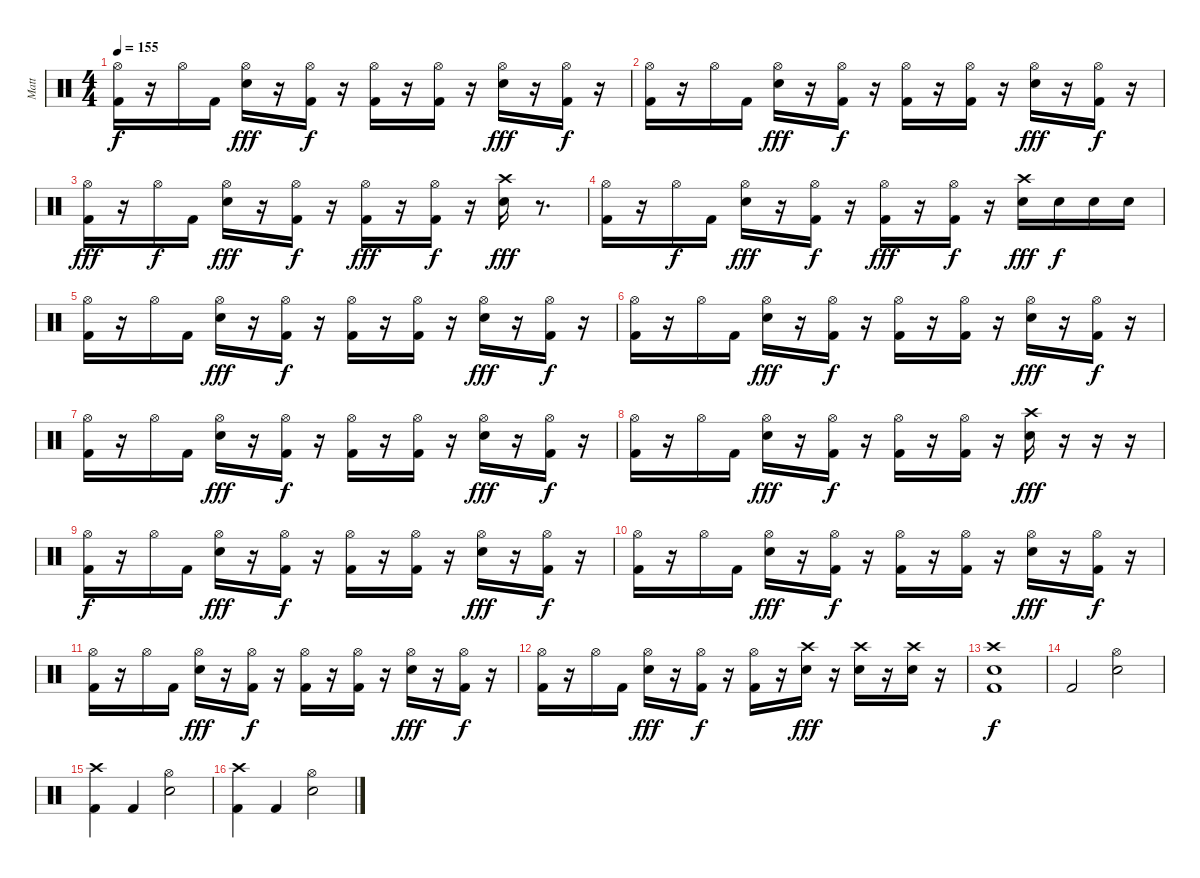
\track ("Matt" "Matt") {instrument percussion}
\staff {score}
\articulation defaults
\ts (4 4)
\tempo 155
\clef neutral
\ks c
("Hi-Hat (open)" "Kick (hit) 2").16{dy f} r.16 "Hi-Hat (open)".16 "Kick (hit) 2".16 ("Hi-Hat (open)" "Snare (hit) 2").16{dy fff} r.16 ("Hi-Hat (open)" "Kick (hit) 2").16{dy f} r.16 ("Hi-Hat (open)" "Kick (hit) 2").16 r.16 ("Hi-Hat (open)" "Kick (hit) 2").16 r.16 ("Hi-Hat (open)" "Snare (hit) 2").16{dy fff} r.16 ("Hi-Hat (open)" "Kick (hit) 2").16{dy f} r.16 |
("Hi-Hat (open)" "Kick (hit) 2").16 r.16 "Hi-Hat (open)".16 "Kick (hit) 2".16 ("Hi-Hat (open)" "Snare (hit) 2").16{dy fff} r.16 ("Hi-Hat (open)" "Kick (hit) 2").16{dy f} r.16 ("Hi-Hat (open)" "Kick (hit) 2").16 r.16 ("Hi-Hat (open)" "Kick (hit) 2").16 r.16 ("Hi-Hat (open)" "Snare (hit) 2").16{dy fff} r.16 ("Hi-Hat (open)" "Kick (hit) 2").16{dy f} r.16 |
("Hi-Hat (open)" "Kick (hit) 2").16{dy fff} r.16 "Hi-Hat (open)".16{dy f} "Kick (hit) 2".16 ("Hi-Hat (open)" "Snare (hit) 2").16{dy fff} r.16 ("Hi-Hat (open)" "Kick (hit) 2").16{dy f} r.16 ("Hi-Hat (open)" "Kick (hit) 2").16{dy fff} r.16 ("Hi-Hat (open)" "Kick (hit) 2").16{dy f} r.16 ("Crash high (hit)" "Snare (hit) 2").16{dy fff} r.8{d} |
("Hi-Hat (open)" "Kick (hit) 2").16 r.16 "Hi-Hat (open)".16{dy f} "Kick (hit) 2".16 ("Hi-Hat (open)" "Snare (hit) 2").16{dy fff} r.16 ("Hi-Hat (open)" "Kick (hit) 2").16{dy f} r.16 ("Hi-Hat (open)" "Kick (hit) 2").16{dy fff} r.16 ("Hi-Hat (open)" "Kick (hit) 2").16{dy f} r.16 ("Crash high (hit)" "Snare (hit) 2").16{dy fff} "Snare (hit) 2".16{dy f} "Snare (hit) 2".16 "Snare (hit) 2".16 |
("Hi-Hat (open)" "Kick (hit) 2").16 r.16 "Hi-Hat (open)".16 "Kick (hit) 2".16 ("Hi-Hat (open)" "Snare (hit) 2").16{dy fff} r.16 ("Hi-Hat (open)" "Kick (hit) 2").16{dy f} r.16 ("Hi-Hat (open)" "Kick (hit) 2").16 r.16 ("Hi-Hat (open)" "Kick (hit) 2").16 r.16 ("Hi-Hat (open)" "Snare (hit) 2").16{dy fff} r.16 ("Hi-Hat (open)" "Kick (hit) 2").16{dy f} r.16 |
("Hi-Hat (open)" "Kick (hit) 2").16 r.16 "Hi-Hat (open)".16 "Kick (hit) 2".16 ("Hi-Hat (open)" "Snare (hit) 2").16{dy fff} r.16 ("Hi-Hat (open)" "Kick (hit) 2").16{dy f} r.16 ("Hi-Hat (open)" "Kick (hit) 2").16 r.16 ("Hi-Hat (open)" "Kick (hit) 2").16 r.16 ("Hi-Hat (open)" "Snare (hit) 2").16{dy fff} r.16 ("Hi-Hat (open)" "Kick (hit) 2").16{dy f} r.16 |
("Hi-Hat (open)" "Kick (hit) 2").16 r.16 "Hi-Hat (open)".16 "Kick (hit) 2".16 ("Hi-Hat (open)" "Snare (hit) 2").16{dy fff} r.16 ("Hi-Hat (open)" "Kick (hit) 2").16{dy f} r.16 ("Hi-Hat (open)" "Kick (hit) 2").16 r.16 ("Hi-Hat (open)" "Kick (hit) 2").16 r.16 ("Hi-Hat (open)" "Snare (hit) 2").16{dy fff} r.16 ("Hi-Hat (open)" "Kick (hit) 2").16{dy f} r.16 |
("Hi-Hat (open)" "Kick (hit) 2").16 r.16 "Hi-Hat (open)".16 "Kick (hit) 2".16 ("Hi-Hat (open)" "Snare (hit) 2").16{dy fff} r.16 ("Hi-Hat (open)" "Kick (hit) 2").16{dy f} r.16 ("Hi-Hat (open)" "Kick (hit) 2").16 r.16 ("Hi-Hat (open)" "Kick (hit) 2").16 r.16 ("Crash high (hit)" "Snare (hit) 2").16{dy fff} r.16 r.16 r.16 |
("Hi-Hat (open)" "Kick (hit) 2").16{dy f} r.16 "Hi-Hat (open)".16 "Kick (hit) 2".16 ("Hi-Hat (open)" "Snare (hit) 2").16{dy fff} r.16 ("Hi-Hat (open)" "Kick (hit) 2").16{dy f} r.16 ("Hi-Hat (open)" "Kick (hit) 2").16 r.16 ("Hi-Hat (open)" "Kick (hit) 2").16 r.16 ("Hi-Hat (open)" "Snare (hit) 2").16{dy fff} r.16 ("Hi-Hat (open)" "Kick (hit) 2").16{dy f} r.16 |
("Hi-Hat (open)" "Kick (hit) 2").16 r.16 "Hi-Hat (open)".16 "Kick (hit) 2".16 ("Hi-Hat (open)" "Snare (hit) 2").16{dy fff} r.16 ("Hi-Hat (open)" "Kick (hit) 2").16{dy f} r.16 ("Hi-Hat (open)" "Kick (hit) 2").16 r.16 ("Hi-Hat (open)" "Kick (hit) 2").16 r.16 ("Hi-Hat (open)" "Snare (hit) 2").16{dy fff} r.16 ("Hi-Hat (open)" "Kick (hit) 2").16{dy f} r.16 |
("Hi-Hat (open)" "Kick (hit) 2").16 r.16 "Hi-Hat (open)".16 "Kick (hit) 2".16 ("Hi-Hat (open)" "Snare (hit) 2").16{dy fff} r.16 ("Hi-Hat (open)" "Kick (hit) 2").16{dy f} r.16 ("Hi-Hat (open)" "Kick (hit) 2").16 r.16 ("Hi-Hat (open)" "Kick (hit) 2").16 r.16 ("Hi-Hat (open)" "Snare (hit) 2").16{dy fff} r.16 ("Hi-Hat (open)" "Kick (hit) 2").16{dy f} r.16 |
("Hi-Hat (open)" "Kick (hit) 2").16 r.16 "Hi-Hat (open)".16 "Kick (hit) 2".16 ("Hi-Hat (open)" "Snare (hit) 2").16{dy fff} r.16 ("Hi-Hat (open)" "Kick (hit) 2").16{dy f} r.16 ("Hi-Hat (open)" "Kick (hit) 2").16 r.16 ("Crash high (hit)" "Snare (hit) 2").16{dy fff} r.16 ("Crash high (hit)" "Snare (hit) 2").16 r.16 ("Crash high (hit)" "Snare (hit) 2").16 r.16 |
("Crash high (hit)" "Kick (hit) 2" "Snare (hit) 2").1{dy f} |
"Kick (hit) 2".2 ("Hi-Hat (open)" "Snare (hit) 2").2 |
("Crash high (hit)" "Kick (hit) 2").4 "Kick (hit) 2".4 ("Hi-Hat (open)" "Snare (hit) 2").2 |
("Crash high (hit)" "Kick (hit) 2").4 "Kick (hit) 2".4 ("Hi-Hat (open)" "Snare (hit) 2").2
